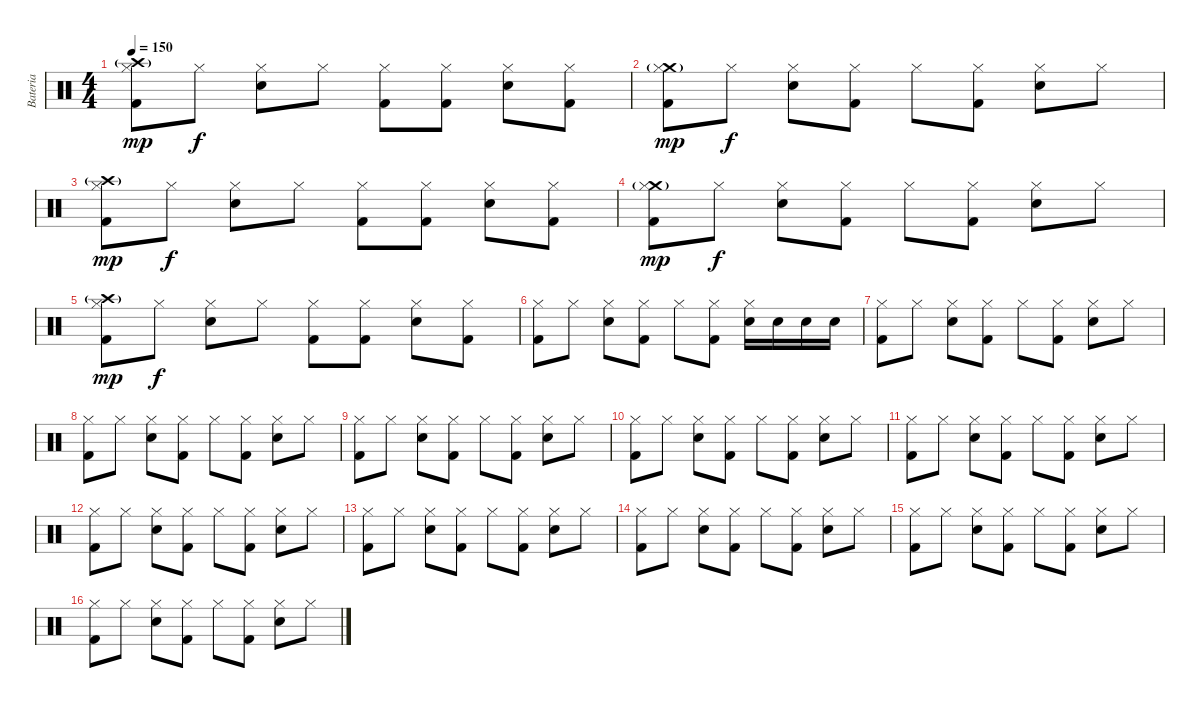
\track ("Bateria" "Bateria") {instrument percussion}
\staff {score}
\articulation defaults
\ts (4 4)
\tempo 150
\clef neutral
\ks c
("Kick (hit) 2" "Crash high (hit)"{g} "Hi-Hat (closed)").8{dy mp} "Hi-Hat (closed)".8{dy f} ("Electric Snare (hit)" "Hi-Hat (closed)").8 "Hi-Hat (closed)".8 ("Kick (hit) 2" "Hi-Hat (closed)").8 ("Kick (hit) 2" "Hi-Hat (closed)").8 ("Electric Snare (hit)" "Hi-Hat (closed)").8 ("Kick (hit) 2" "Hi-Hat (closed)").8 |
("Kick (hit) 2" "Crash medium (hit)"{g} "Hi-Hat (closed)").8{dy mp} "Hi-Hat (closed)".8{dy f} ("Electric Snare (hit)" "Hi-Hat (closed)").8 ("Kick (hit) 2" "Hi-Hat (closed)").8 "Hi-Hat (closed)".8 ("Kick (hit) 2" "Hi-Hat (closed)").8 ("Electric Snare (hit)" "Hi-Hat (closed)").8 "Hi-Hat (closed)".8 |
("Kick (hit) 2" "Crash high (hit)"{g} "Hi-Hat (closed)").8{dy mp} "Hi-Hat (closed)".8{dy f} ("Electric Snare (hit)" "Hi-Hat (closed)").8 "Hi-Hat (closed)".8 ("Kick (hit) 2" "Hi-Hat (closed)").8 ("Kick (hit) 2" "Hi-Hat (closed)").8 ("Electric Snare (hit)" "Hi-Hat (closed)").8 ("Kick (hit) 2" "Hi-Hat (closed)").8 |
("Kick (hit) 2" "Crash medium (hit)"{g} "Hi-Hat (closed)").8{dy mp} "Hi-Hat (closed)".8{dy f} ("Electric Snare (hit)" "Hi-Hat (closed)").8 ("Kick (hit) 2" "Hi-Hat (closed)").8 "Hi-Hat (closed)".8 ("Kick (hit) 2" "Hi-Hat (closed)").8 ("Electric Snare (hit)" "Hi-Hat (closed)").8 "Hi-Hat (closed)".8 |
("Kick (hit) 2" "Crash high (hit)"{g} "Hi-Hat (closed)").8{dy mp} "Hi-Hat (closed)".8{dy f} ("Electric Snare (hit)" "Hi-Hat (closed)").8 "Hi-Hat (closed)".8 ("Kick (hit) 2" "Hi-Hat (closed)").8 ("Kick (hit) 2" "Hi-Hat (closed)").8 ("Electric Snare (hit)" "Hi-Hat (closed)").8 ("Kick (hit) 2" "Hi-Hat (closed)").8 |
("Kick (hit) 2" "Hi-Hat (closed)").8 "Hi-Hat (closed)".8 ("Electric Snare (hit)" "Hi-Hat (closed)").8 ("Kick (hit) 2" "Hi-Hat (closed)").8 "Hi-Hat (closed)".8 ("Kick (hit) 2" "Hi-Hat (closed)").8 ("Electric Snare (hit)" "Hi-Hat (closed)").16 "Electric Snare (hit)".16 "Electric Snare (hit)".16 "Electric Snare (hit)".16 |
("Kick (hit) 2" "Hi-Hat (closed)").8 "Hi-Hat (closed)".8 ("Electric Snare (hit)" "Hi-Hat (closed)").8 ("Kick (hit) 2" "Hi-Hat (closed)").8 "Hi-Hat (closed)".8 ("Kick (hit) 2" "Hi-Hat (closed)").8 ("Electric Snare (hit)" "Hi-Hat (closed)").8 "Hi-Hat (closed)".8 |
("Kick (hit) 2" "Hi-Hat (closed)").8 "Hi-Hat (closed)".8 ("Electric Snare (hit)" "Hi-Hat (closed)").8 ("Kick (hit) 2" "Hi-Hat (closed)").8 "Hi-Hat (closed)".8 ("Kick (hit) 2" "Hi-Hat (closed)").8 ("Electric Snare (hit)" "Hi-Hat (closed)").8 "Hi-Hat (closed)".8 |
("Kick (hit) 2" "Hi-Hat (closed)").8 "Hi-Hat (closed)".8 ("Electric Snare (hit)" "Hi-Hat (closed)").8 ("Kick (hit) 2" "Hi-Hat (closed)").8 "Hi-Hat (closed)".8 ("Kick (hit) 2" "Hi-Hat (closed)").8 ("Electric Snare (hit)" "Hi-Hat (closed)").8 "Hi-Hat (closed)".8 |
("Kick (hit) 2" "Hi-Hat (closed)").8 "Hi-Hat (closed)".8 ("Electric Snare (hit)" "Hi-Hat (closed)").8 ("Kick (hit) 2" "Hi-Hat (closed)").8 "Hi-Hat (closed)".8 ("Kick (hit) 2" "Hi-Hat (closed)").8 ("Electric Snare (hit)" "Hi-Hat (closed)").8 "Hi-Hat (closed)".8 |
("Kick (hit) 2" "Hi-Hat (closed)").8 "Hi-Hat (closed)".8 ("Electric Snare (hit)" "Hi-Hat (closed)").8 ("Kick (hit) 2" "Hi-Hat (closed)").8 "Hi-Hat (closed)".8 ("Kick (hit) 2" "Hi-Hat (closed)").8 ("Electric Snare (hit)" "Hi-Hat (closed)").8 "Hi-Hat (closed)".8 |
("Kick (hit) 2" "Hi-Hat (closed)").8 "Hi-Hat (closed)".8 ("Electric Snare (hit)" "Hi-Hat (closed)").8 ("Kick (hit) 2" "Hi-Hat (closed)").8 "Hi-Hat (closed)".8 ("Kick (hit) 2" "Hi-Hat (closed)").8 ("Electric Snare (hit)" "Hi-Hat (closed)").8 "Hi-Hat (closed)".8 |
("Kick (hit) 2" "Hi-Hat (closed)").8 "Hi-Hat (closed)".8 ("Electric Snare (hit)" "Hi-Hat (closed)").8 ("Kick (hit) 2" "Hi-Hat (closed)").8 "Hi-Hat (closed)".8 ("Kick (hit) 2" "Hi-Hat (closed)").8 ("Electric Snare (hit)" "Hi-Hat (closed)").8 "Hi-Hat (closed)".8 |
("Kick (hit) 2" "Hi-Hat (closed)").8 "Hi-Hat (closed)".8 ("Electric Snare (hit)" "Hi-Hat (closed)").8 ("Kick (hit) 2" "Hi-Hat (closed)").8 "Hi-Hat (closed)".8 ("Kick (hit) 2" "Hi-Hat (closed)").8 ("Electric Snare (hit)" "Hi-Hat (closed)").8 "Hi-Hat (closed)".8 |
("Kick (hit) 2" "Hi-Hat (closed)").8 "Hi-Hat (closed)".8 ("Electric Snare (hit)" "Hi-Hat (closed)").8 ("Kick (hit) 2" "Hi-Hat (closed)").8 "Hi-Hat (closed)".8 ("Kick (hit) 2" "Hi-Hat (closed)").8 ("Electric Snare (hit)" "Hi-Hat (closed)").8 "Hi-Hat (closed)".8 |
("Kick (hit) 2" "Hi-Hat (closed)").8 "Hi-Hat (closed)".8 ("Electric Snare (hit)" "Hi-Hat (closed)").8 ("Kick (hit) 2" "Hi-Hat (closed)").8 "Hi-Hat (closed)".8 ("Kick (hit) 2" "Hi-Hat (closed)").8 ("Electric Snare (hit)" "Hi-Hat (closed)").8 "Hi-Hat (closed)".8
